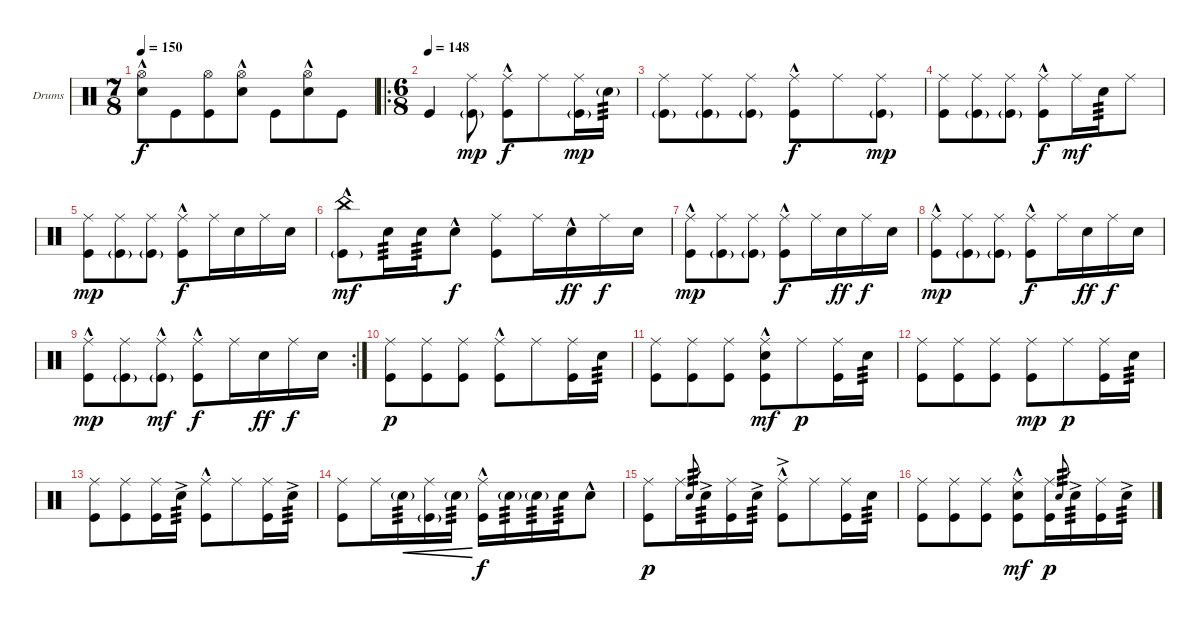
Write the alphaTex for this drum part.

\defaultSystemsLayout 4
\bracketExtendMode groupsimilarinstruments
\firstSystemTrackNameOrientation horizontal
\otherSystemsTrackNameOrientation horizontal
\track ("Drumkit" "Drums") {instrument percussion}
\staff {score}
\articulation defaults
\ts (7 8)
\tempo 150
\clef neutral
\scale
0.333333
\ks c
("Snare (hit) 2"{hac} "Hi-Hat (open)"{hac}).8{dy f} "Kick (hit)".8 ("Kick (hit)" "Hi-Hat (open)").8 ("Snare (hit) 2"{hac} "Hi-Hat (open)"{hac}).8 "Kick (hit)".8 ("Snare (hit) 2"{hac} "Hi-Hat (open)"{hac}).8 "Kick (hit)".8 |
\ro
\ts (6 8)
\tempo 148
\scale
0.502222 "Kick (hit)".4 ("Kick (hit)"{g} "Ride (middle)").8{dy mp} ("Kick (hit)" "Ride (middle)"{hac}).8{dy f} "Ride (middle)".8 ("Ride (middle)" "Kick (hit)"{g}).16{dy mp} "Snare (hit) 2"{g}.16{tp 3} |
\scale
0.248889 ("Ride (middle)" "Kick (hit)"{g}).8 ("Kick (hit)"{g} "Ride (middle)").8 ("Kick (hit)"{g} "Ride (middle)").8 ("Kick (hit)" "Ride (middle)"{hac}).8{dy f} "Ride (middle)".8 ("Ride (middle)" "Kick (hit)"{g}).8{dy mp} |
\scale
0.248889 ("Ride (middle)" "Kick (hit)").8 ("Kick (hit)"{g} "Ride (middle)").8 ("Kick (hit)"{g} "Ride (middle)").8 ("Kick (hit)" "Ride (middle)"{hac}).8{dy f} "Ride (middle)".16{dy mf} "Snare (hit) 2".16{tp 3} "Ride (middle)".8 |
\scale
0.333333 ("Ride (middle)" "Kick (hit)").8{dy mp} ("Kick (hit)"{g} "Ride (middle)").8 ("Kick (hit)"{g} "Ride (middle)").8 ("Kick (hit)" "Ride (middle)"{hac}).8{dy f} "Ride (middle)".16 "Snare (hit) 2".16 "Ride (middle)".16 "Snare (hit) 2".16 |
\scale
0.333333 ("Kick (hit)"{g} "China (hit)"{hac}).8{dy mf} "Snare (hit) 2".16{tp 3} "Snare (hit) 2".16{tp 3} "Snare (hit) 2"{hac}.8{dy f} ("Ride (middle)" "Kick (hit)").8 "Ride (middle)".16 "Snare (hit) 2"{hac}.16{dy ff} "Ride (middle)".16{dy f} "Snare (hit) 2".16 |
\scale
0.333333 ("Ride (middle)"{hac} "Kick (hit)").8{dy mp} ("Kick (hit)"{g} "Ride (middle)").8 ("Kick (hit)"{g} "Ride (middle)").8 ("Kick (hit)" "Ride (middle)"{hac}).8{dy f} "Ride (middle)".16 "Snare (hit) 2".16{dy ff} "Ride (middle)".16{dy f} "Snare (hit) 2".16 |
\scale
0.321839 ("Ride (middle)"{hac} "Kick (hit)").8{dy mp} ("Kick (hit)"{g} "Ride (middle)").8 ("Kick (hit)"{g} "Ride (middle)").8 ("Kick (hit)" "Ride (middle)"{hac}).8{dy f} "Ride (middle)".16 "Snare (hit) 2".16{dy ff} "Ride (middle)".16{dy f} "Snare (hit) 2".16 |
\rc 2
\scale
0.356322 ("Ride (middle)"{hac} "Kick (hit)").8{dy mp} ("Kick (hit)"{g} "Ride (middle)").8 ("Kick (hit)"{g} "Ride (middle)"{hac}).8{dy mf} ("Kick (hit)" "Ride (middle)"{hac}).8{dy f} "Ride (middle)".16 "Snare (hit) 2".16{dy ff} "Ride (middle)".16{dy f} "Snare (hit) 2".16 |
\scale
0.321839 ("Ride (middle)" "Kick (hit)").8{dy p} ("Ride (middle)" "Kick (hit)").8 ("Ride (middle)" "Kick (hit)").8 ("Ride (middle)" "Kick (hit)"{hac}).8 "Ride (middle)".8 ("Ride (middle)" "Kick (hit)").16 "Snare (hit) 2".16{tp 3} |
\scale
0.333333 ("Ride (middle)" "Kick (hit)").8 ("Ride (middle)" "Kick (hit)").8 ("Ride (middle)" "Kick (hit)").8 ("Ride (middle)"{hac} "Kick (hit)" "Snare (hit) 2"{hac}).8{dy mf} "Ride (middle)".8{dy p} ("Ride (middle)" "Kick (hit)").16 "Snare (hit) 2".16{tp 3} |
\scale
0.333333 ("Ride (middle)" "Kick (hit)").8 ("Ride (middle)" "Kick (hit)").8 ("Ride (middle)" "Kick (hit)").8 ("Ride (middle)" "Kick (hit)").8{dy mp} "Ride (middle)".8{dy p} ("Ride (middle)" "Kick (hit)").16 "Snare (hit) 2".16{tp 3} |
\scale
0.333333 ("Ride (middle)" "Kick (hit)").8 ("Ride (middle)" "Kick (hit)").8 ("Ride (middle)" "Kick (hit)").16 "Snare (hit) 2"{ac}.16{tp 3} ("Ride (middle)"{hac} "Kick (hit)"{hac}).8 "Ride (middle)".8 ("Ride (middle)" "Kick (hit)").16 "Snare (hit) 2"{ac}.16{tp 3} |
\scale
0.333333 ("Ride (middle)" "Kick (hit)").8 "Ride (middle)".16 "Snare (hit) 2"{g}.16{tp 3 cre} ("Ride (middle)" "Kick (hit)"{g}).16{cre} "Snare (hit) 2"{g}.16{tp 3 cre} ("Kick (hit)" "Ride (middle)"{hac}).16{dy f} "Snare (hit) 2"{g}.16{tp 3} "Snare (hit) 2"{g}.16{tp 3} "Snare (hit) 2".16{tp 3} "Snare (hit) 2"{hac}.8 |
\scale
0.333333 ("Ride (middle)" "Kick (hit)").8{dy p} "Ride (middle)".16 "Snare (hit) 2".8{gr tp 3} "Snare (hit) 2"{ac}.16{tp 3} ("Ride (middle)" "Kick (hit)").16 "Snare (hit) 2"{ac}.16{tp 3} ("Ride (middle)"{hac} "Kick (hit)"{ac}).8 "Ride (middle)".8 ("Ride (middle)" "Kick (hit)").16 "Snare (hit) 2".16{tp 3} |
\scale
0.333333 ("Ride (middle)" "Kick (hit)").8 ("Ride (middle)" "Kick (hit)").8 ("Ride (middle)" "Kick (hit)").8 ("Ride (middle)" "Kick (hit)" "Snare (hit) 2"{hac}).8{dy mf} ("Ride (middle)" "Kick (hit)").16{dy p} "Snare (hit) 2".8{gr tp 3} "Snare (hit) 2"{ac}.16{tp 3} ("Ride (middle)" "Kick (hit)").16 "Snare (hit) 2"{ac}.16{tp 3}
